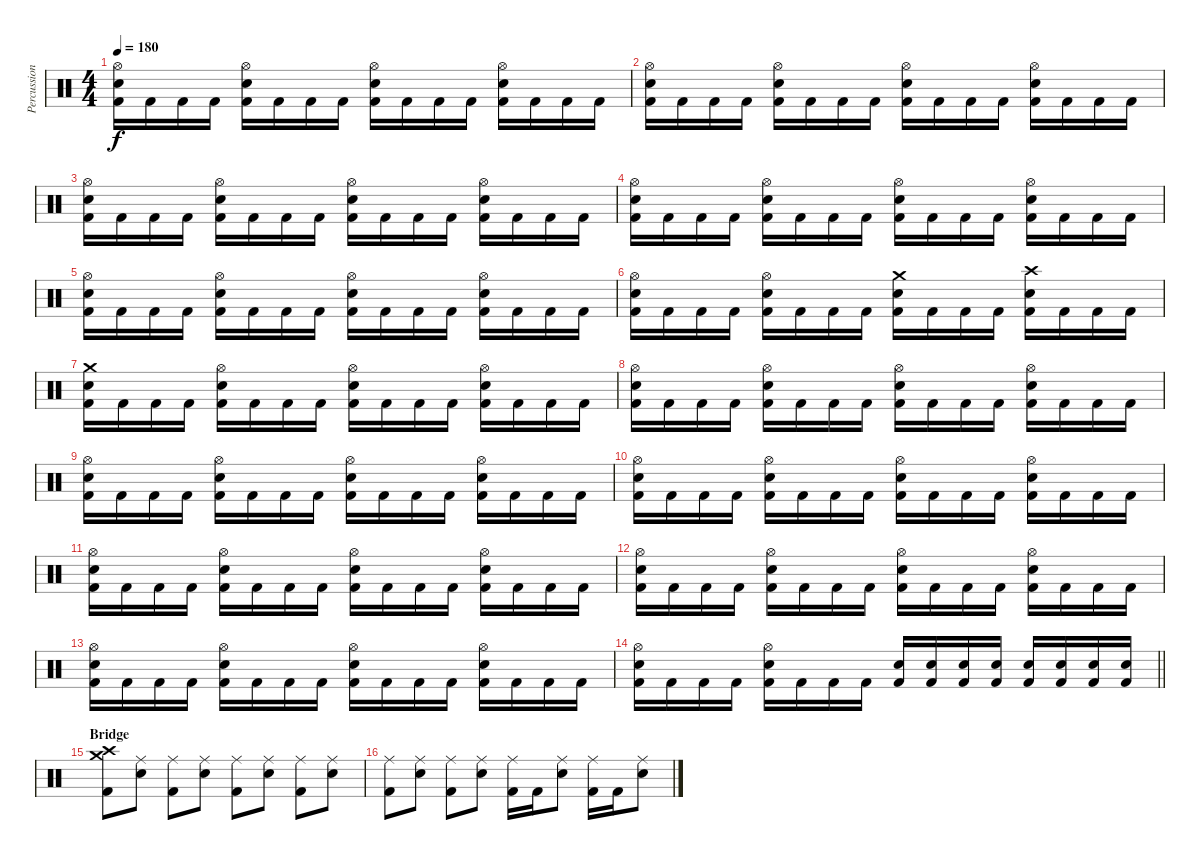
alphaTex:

\track ("Percussion" "Percussion") {instrument percussion}
\staff {score}
\articulation defaults
\ts (4 4)
\tempo 180
\clef neutral
\ks c
("Hi-Hat (open)" "Electric Snare (hit)" "Kick (hit) 2").16{dy f} "Kick (hit) 2".16 "Kick (hit) 2".16 "Kick (hit) 2".16 ("Hi-Hat (open)" "Electric Snare (hit)" "Kick (hit) 2").16 "Kick (hit) 2".16 "Kick (hit) 2".16 "Kick (hit) 2".16 ("Hi-Hat (open)" "Electric Snare (hit)" "Kick (hit) 2").16 "Kick (hit) 2".16 "Kick (hit) 2".16 "Kick (hit) 2".16 ("Hi-Hat (open)" "Electric Snare (hit)" "Kick (hit) 2").16 "Kick (hit) 2".16 "Kick (hit) 2".16 "Kick (hit) 2".16 |
("Hi-Hat (open)" "Electric Snare (hit)" "Kick (hit) 2").16 "Kick (hit) 2".16 "Kick (hit) 2".16 "Kick (hit) 2".16 ("Hi-Hat (open)" "Electric Snare (hit)" "Kick (hit) 2").16 "Kick (hit) 2".16 "Kick (hit) 2".16 "Kick (hit) 2".16 ("Hi-Hat (open)" "Electric Snare (hit)" "Kick (hit) 2").16 "Kick (hit) 2".16 "Kick (hit) 2".16 "Kick (hit) 2".16 ("Hi-Hat (open)" "Electric Snare (hit)" "Kick (hit) 2").16 "Kick (hit) 2".16 "Kick (hit) 2".16 "Kick (hit) 2".16 |
("Hi-Hat (open)" "Electric Snare (hit)" "Kick (hit) 2").16 "Kick (hit) 2".16 "Kick (hit) 2".16 "Kick (hit) 2".16 ("Hi-Hat (open)" "Electric Snare (hit)" "Kick (hit) 2").16 "Kick (hit) 2".16 "Kick (hit) 2".16 "Kick (hit) 2".16 ("Hi-Hat (open)" "Electric Snare (hit)" "Kick (hit) 2").16 "Kick (hit) 2".16 "Kick (hit) 2".16 "Kick (hit) 2".16 ("Hi-Hat (open)" "Electric Snare (hit)" "Kick (hit) 2").16 "Kick (hit) 2".16 "Kick (hit) 2".16 "Kick (hit) 2".16 |
("Hi-Hat (open)" "Electric Snare (hit)" "Kick (hit) 2").16 "Kick (hit) 2".16 "Kick (hit) 2".16 "Kick (hit) 2".16 ("Hi-Hat (open)" "Electric Snare (hit)" "Kick (hit) 2").16 "Kick (hit) 2".16 "Kick (hit) 2".16 "Kick (hit) 2".16 ("Hi-Hat (open)" "Electric Snare (hit)" "Kick (hit) 2").16 "Kick (hit) 2".16 "Kick (hit) 2".16 "Kick (hit) 2".16 ("Hi-Hat (open)" "Electric Snare (hit)" "Kick (hit) 2").16 "Kick (hit) 2".16 "Kick (hit) 2".16 "Kick (hit) 2".16 |
("Hi-Hat (open)" "Electric Snare (hit)" "Kick (hit) 2").16 "Kick (hit) 2".16 "Kick (hit) 2".16 "Kick (hit) 2".16 ("Hi-Hat (open)" "Electric Snare (hit)" "Kick (hit) 2").16 "Kick (hit) 2".16 "Kick (hit) 2".16 "Kick (hit) 2".16 ("Hi-Hat (open)" "Electric Snare (hit)" "Kick (hit) 2").16 "Kick (hit) 2".16 "Kick (hit) 2".16 "Kick (hit) 2".16 ("Hi-Hat (open)" "Electric Snare (hit)" "Kick (hit) 2").16 "Kick (hit) 2".16 "Kick (hit) 2".16 "Kick (hit) 2".16 |
("Hi-Hat (open)" "Electric Snare (hit)" "Kick (hit) 2").16 "Kick (hit) 2".16 "Kick (hit) 2".16 "Kick (hit) 2".16 ("Hi-Hat (open)" "Electric Snare (hit)" "Kick (hit) 2").16 "Kick (hit) 2".16 "Kick (hit) 2".16 "Kick (hit) 2".16 ("Crash medium (hit)" "Electric Snare (hit)" "Kick (hit) 2").16 "Kick (hit) 2".16 "Kick (hit) 2".16 "Kick (hit) 2".16 ("Crash high (hit)" "Electric Snare (hit)" "Kick (hit) 2").16 "Kick (hit) 2".16 "Kick (hit) 2".16 "Kick (hit) 2".16 |
("Crash medium (hit)" "Electric Snare (hit)" "Kick (hit) 2").16 "Kick (hit) 2".16 "Kick (hit) 2".16 "Kick (hit) 2".16 ("Hi-Hat (open)" "Electric Snare (hit)" "Kick (hit) 2").16 "Kick (hit) 2".16 "Kick (hit) 2".16 "Kick (hit) 2".16 ("Hi-Hat (open)" "Electric Snare (hit)" "Kick (hit) 2").16 "Kick (hit) 2".16 "Kick (hit) 2".16 "Kick (hit) 2".16 ("Hi-Hat (open)" "Electric Snare (hit)" "Kick (hit) 2").16 "Kick (hit) 2".16 "Kick (hit) 2".16 "Kick (hit) 2".16 |
("Hi-Hat (open)" "Electric Snare (hit)" "Kick (hit) 2").16 "Kick (hit) 2".16 "Kick (hit) 2".16 "Kick (hit) 2".16 ("Hi-Hat (open)" "Electric Snare (hit)" "Kick (hit) 2").16 "Kick (hit) 2".16 "Kick (hit) 2".16 "Kick (hit) 2".16 ("Hi-Hat (open)" "Electric Snare (hit)" "Kick (hit) 2").16 "Kick (hit) 2".16 "Kick (hit) 2".16 "Kick (hit) 2".16 ("Hi-Hat (open)" "Electric Snare (hit)" "Kick (hit) 2").16 "Kick (hit) 2".16 "Kick (hit) 2".16 "Kick (hit) 2".16 |
("Hi-Hat (open)" "Electric Snare (hit)" "Kick (hit) 2").16 "Kick (hit) 2".16 "Kick (hit) 2".16 "Kick (hit) 2".16 ("Hi-Hat (open)" "Electric Snare (hit)" "Kick (hit) 2").16 "Kick (hit) 2".16 "Kick (hit) 2".16 "Kick (hit) 2".16 ("Hi-Hat (open)" "Electric Snare (hit)" "Kick (hit) 2").16 "Kick (hit) 2".16 "Kick (hit) 2".16 "Kick (hit) 2".16 ("Hi-Hat (open)" "Electric Snare (hit)" "Kick (hit) 2").16 "Kick (hit) 2".16 "Kick (hit) 2".16 "Kick (hit) 2".16 |
("Hi-Hat (open)" "Electric Snare (hit)" "Kick (hit) 2").16 "Kick (hit) 2".16 "Kick (hit) 2".16 "Kick (hit) 2".16 ("Hi-Hat (open)" "Electric Snare (hit)" "Kick (hit) 2").16 "Kick (hit) 2".16 "Kick (hit) 2".16 "Kick (hit) 2".16 ("Hi-Hat (open)" "Electric Snare (hit)" "Kick (hit) 2").16 "Kick (hit) 2".16 "Kick (hit) 2".16 "Kick (hit) 2".16 ("Hi-Hat (open)" "Electric Snare (hit)" "Kick (hit) 2").16 "Kick (hit) 2".16 "Kick (hit) 2".16 "Kick (hit) 2".16 |
("Hi-Hat (open)" "Electric Snare (hit)" "Kick (hit) 2").16 "Kick (hit) 2".16 "Kick (hit) 2".16 "Kick (hit) 2".16 ("Hi-Hat (open)" "Electric Snare (hit)" "Kick (hit) 2").16 "Kick (hit) 2".16 "Kick (hit) 2".16 "Kick (hit) 2".16 ("Hi-Hat (open)" "Electric Snare (hit)" "Kick (hit) 2").16 "Kick (hit) 2".16 "Kick (hit) 2".16 "Kick (hit) 2".16 ("Hi-Hat (open)" "Electric Snare (hit)" "Kick (hit) 2").16 "Kick (hit) 2".16 "Kick (hit) 2".16 "Kick (hit) 2".16 |
("Hi-Hat (open)" "Electric Snare (hit)" "Kick (hit) 2").16 "Kick (hit) 2".16 "Kick (hit) 2".16 "Kick (hit) 2".16 ("Hi-Hat (open)" "Electric Snare (hit)" "Kick (hit) 2").16 "Kick (hit) 2".16 "Kick (hit) 2".16 "Kick (hit) 2".16 ("Hi-Hat (open)" "Electric Snare (hit)" "Kick (hit) 2").16 "Kick (hit) 2".16 "Kick (hit) 2".16 "Kick (hit) 2".16 ("Hi-Hat (open)" "Electric Snare (hit)" "Kick (hit) 2").16 "Kick (hit) 2".16 "Kick (hit) 2".16 "Kick (hit) 2".16 |
("Hi-Hat (open)" "Electric Snare (hit)" "Kick (hit) 2").16 "Kick (hit) 2".16 "Kick (hit) 2".16 "Kick (hit) 2".16 ("Hi-Hat (open)" "Electric Snare (hit)" "Kick (hit) 2").16 "Kick (hit) 2".16 "Kick (hit) 2".16 "Kick (hit) 2".16 ("Hi-Hat (open)" "Electric Snare (hit)" "Kick (hit) 2").16 "Kick (hit) 2".16 "Kick (hit) 2".16 "Kick (hit) 2".16 ("Hi-Hat (open)" "Electric Snare (hit)" "Kick (hit) 2").16 "Kick (hit) 2".16 "Kick (hit) 2".16 "Kick (hit) 2".16 |
\barLineRight lightlight
("Hi-Hat (open)" "Electric Snare (hit)" "Kick (hit) 2").16 "Kick (hit) 2".16 "Kick (hit) 2".16 "Kick (hit) 2".16 ("Hi-Hat (open)" "Electric Snare (hit)" "Kick (hit) 2").16 "Kick (hit) 2".16 "Kick (hit) 2".16 "Kick (hit) 2".16 ("Electric Snare (hit)" "Kick (hit) 2").16 ("Electric Snare (hit)" "Kick (hit) 2").16 ("Electric Snare (hit)" "Kick (hit) 2").16 ("Electric Snare (hit)" "Kick (hit) 2").16 ("Electric Snare (hit)" "Kick (hit) 2").16 ("Electric Snare (hit)" "Kick (hit) 2").16 ("Electric Snare (hit)" "Kick (hit) 2").16 ("Electric Snare (hit)" "Kick (hit) 2").16 |
\section ("" "Bridge")
("Crash high (hit)" "Crash medium (hit)" "Kick (hit) 2").8 ("Ride (middle)" "Electric Snare (hit)").8 ("Ride (middle)" "Kick (hit) 2").8 ("Ride (middle)" "Electric Snare (hit)").8 ("Ride (middle)" "Kick (hit) 2").8 ("Ride (middle)" "Electric Snare (hit)").8 ("Ride (middle)" "Kick (hit) 2").8 ("Ride (middle)" "Electric Snare (hit)").8 |
("Ride (middle)" "Kick (hit) 2").8 ("Ride (middle)" "Electric Snare (hit)").8 ("Ride (middle)" "Kick (hit) 2").8 ("Ride (middle)" "Electric Snare (hit)").8 ("Ride (middle)" "Kick (hit) 2").16 "Kick (hit) 2".16 ("Ride (middle)" "Electric Snare (hit)").8 ("Ride (middle)" "Kick (hit) 2").16 "Kick (hit) 2".16 ("Ride (middle)" "Electric Snare (hit)").8
